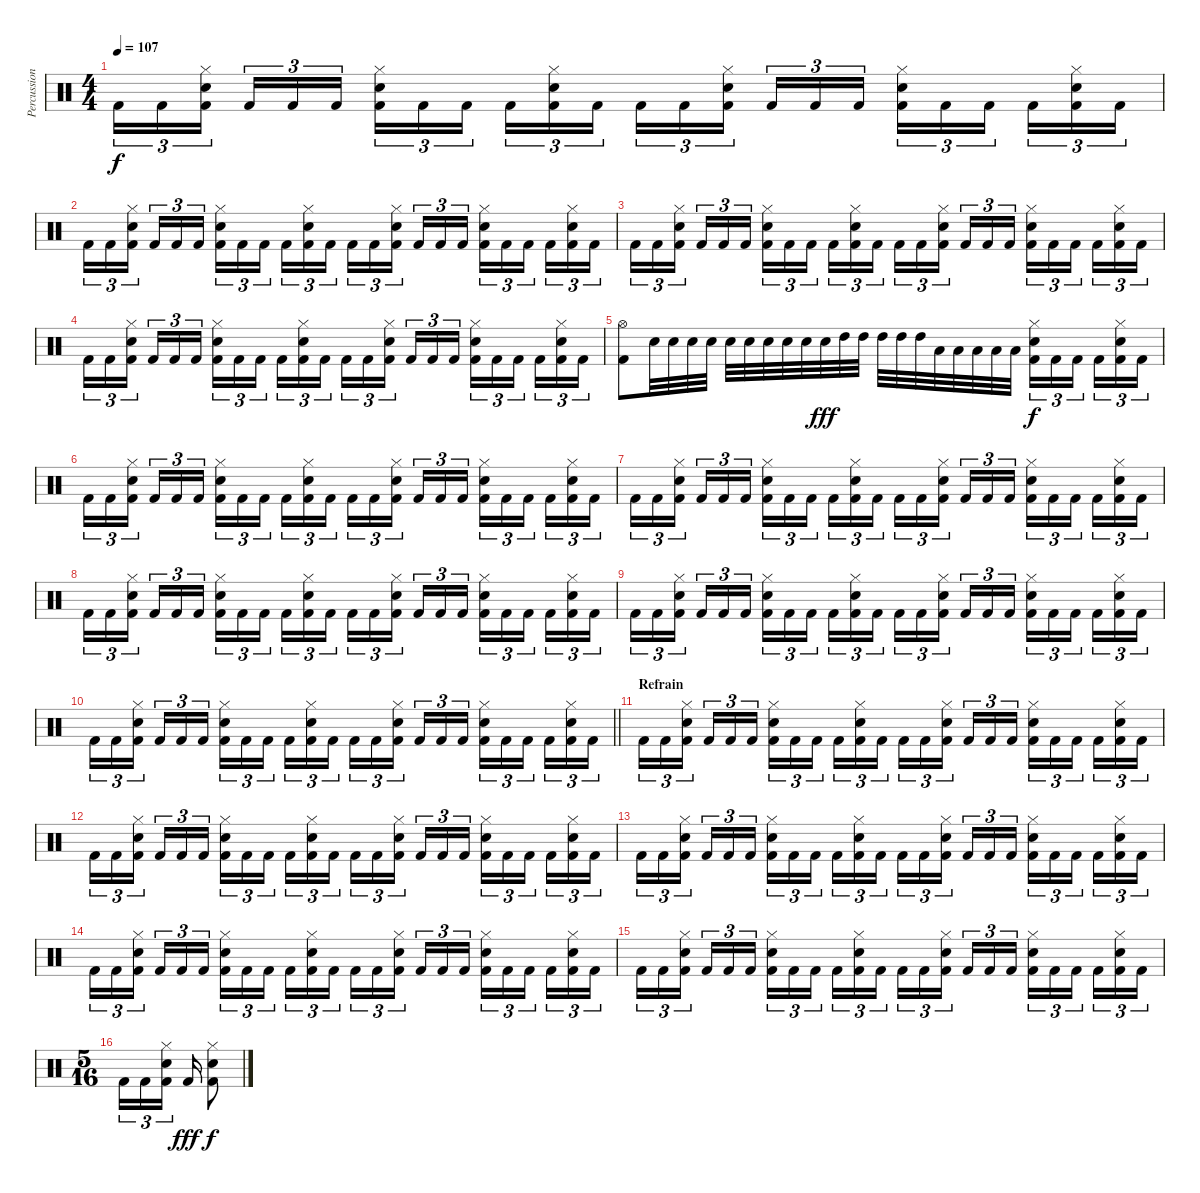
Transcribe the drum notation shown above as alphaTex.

\track ("Percussion" "Percussion") {instrument percussion}
\staff {score}
\articulation defaults
\ts (4 4)
\tempo 107
\clef neutral
\ks c "Kick (hit) 2".16{tu (3 2) dy f} "Kick (hit) 2".16{tu (3 2)}
("Kick (hit) 2" "Electric Snare (hit)" "Hi-Hat (closed)").16{tu (3 2) beam splitsecondary} "Kick (hit) 2".16{tu (3 2)} "Kick (hit) 2".16{tu (3 2)} "Kick (hit) 2".16{tu (3 2)} ("Kick (hit) 2" "Hi-Hat (closed)" "Electric Snare (hit)").16{tu (3 2)} "Kick (hit) 2".16{tu (3 2)} "Kick (hit) 2".16{tu (3 2) beam splitsecondary} "Kick (hit) 2".16{tu (3 2)} ("Kick (hit) 2" "Electric Snare (hit)" "Hi-Hat (closed)").16{tu (3 2)} "Kick (hit) 2".16{tu (3 2)} "Kick (hit) 2".16{tu (3 2)} "Kick (hit) 2".16{tu (3 2)} ("Kick (hit) 2" "Hi-Hat (closed)" "Electric Snare (hit)").16{tu (3 2) beam splitsecondary} "Kick (hit) 2".16{tu (3 2)} "Kick (hit) 2".16{tu (3 2)} "Kick (hit) 2".16{tu (3 2)} ("Kick (hit) 2" "Electric Snare (hit)" "Hi-Hat (closed)").16{tu (3 2)} "Kick (hit) 2".16{tu (3 2)} "Kick (hit) 2".16{tu (3 2) beam splitsecondary} "Kick (hit) 2".16{tu (3 2)} ("Kick (hit) 2" "Hi-Hat (closed)" "Electric Snare (hit)").16{tu (3 2)} "Kick (hit) 2".16{tu (3 2)} |
"Kick (hit) 2".16{tu (3 2)} "Kick (hit) 2".16{tu (3 2)} ("Kick (hit) 2" "Electric Snare (hit)" "Hi-Hat (closed)").16{tu (3 2) beam splitsecondary} "Kick (hit) 2".16{tu (3 2)} "Kick (hit) 2".16{tu (3 2)} "Kick (hit) 2".16{tu (3 2)} ("Kick (hit) 2" "Hi-Hat (closed)" "Electric Snare (hit)").16{tu (3 2)} "Kick (hit) 2".16{tu (3 2)} "Kick (hit) 2".16{tu (3 2) beam splitsecondary} "Kick (hit) 2".16{tu (3 2)} ("Kick (hit) 2" "Electric Snare (hit)" "Hi-Hat (closed)").16{tu (3 2)} "Kick (hit) 2".16{tu (3 2)} "Kick (hit) 2".16{tu (3 2)} "Kick (hit) 2".16{tu (3 2)} ("Kick (hit) 2" "Hi-Hat (closed)" "Electric Snare (hit)").16{tu (3 2) beam splitsecondary} "Kick (hit) 2".16{tu (3 2)} "Kick (hit) 2".16{tu (3 2)} "Kick (hit) 2".16{tu (3 2)} ("Kick (hit) 2" "Electric Snare (hit)" "Hi-Hat (closed)").16{tu (3 2)} "Kick (hit) 2".16{tu (3 2)} "Kick (hit) 2".16{tu (3 2) beam splitsecondary} "Kick (hit) 2".16{tu (3 2)} ("Kick (hit) 2" "Hi-Hat (closed)" "Electric Snare (hit)").16{tu (3 2)} "Kick (hit) 2".16{tu (3 2)} |
"Kick (hit) 2".16{tu (3 2)} "Kick (hit) 2".16{tu (3 2)} ("Kick (hit) 2" "Electric Snare (hit)" "Hi-Hat (closed)").16{tu (3 2) beam splitsecondary} "Kick (hit) 2".16{tu (3 2)} "Kick (hit) 2".16{tu (3 2)} "Kick (hit) 2".16{tu (3 2)} ("Kick (hit) 2" "Hi-Hat (closed)" "Electric Snare (hit)").16{tu (3 2)} "Kick (hit) 2".16{tu (3 2)} "Kick (hit) 2".16{tu (3 2) beam splitsecondary} "Kick (hit) 2".16{tu (3 2)} ("Kick (hit) 2" "Electric Snare (hit)" "Hi-Hat (closed)").16{tu (3 2)} "Kick (hit) 2".16{tu (3 2)} "Kick (hit) 2".16{tu (3 2)} "Kick (hit) 2".16{tu (3 2)} ("Kick (hit) 2" "Hi-Hat (closed)" "Electric Snare (hit)").16{tu (3 2) beam splitsecondary} "Kick (hit) 2".16{tu (3 2)} "Kick (hit) 2".16{tu (3 2)} "Kick (hit) 2".16{tu (3 2)} ("Kick (hit) 2" "Electric Snare (hit)" "Hi-Hat (closed)").16{tu (3 2)} "Kick (hit) 2".16{tu (3 2)} "Kick (hit) 2".16{tu (3 2) beam splitsecondary} "Kick (hit) 2".16{tu (3 2)} ("Kick (hit) 2" "Hi-Hat (closed)" "Electric Snare (hit)").16{tu (3 2)} "Kick (hit) 2".16{tu (3 2)} |
"Kick (hit) 2".16{tu (3 2)} "Kick (hit) 2".16{tu (3 2)} ("Kick (hit) 2" "Electric Snare (hit)" "Hi-Hat (closed)").16{tu (3 2) beam splitsecondary} "Kick (hit) 2".16{tu (3 2)} "Kick (hit) 2".16{tu (3 2)} "Kick (hit) 2".16{tu (3 2)} ("Kick (hit) 2" "Hi-Hat (closed)" "Electric Snare (hit)").16{tu (3 2)} "Kick (hit) 2".16{tu (3 2)} "Kick (hit) 2".16{tu (3 2) beam splitsecondary} "Kick (hit) 2".16{tu (3 2)} ("Kick (hit) 2" "Electric Snare (hit)" "Hi-Hat (closed)").16{tu (3 2)} "Kick (hit) 2".16{tu (3 2)} "Kick (hit) 2".16{tu (3 2)} "Kick (hit) 2".16{tu (3 2)} ("Kick (hit) 2" "Hi-Hat (closed)" "Electric Snare (hit)").16{tu (3 2) beam splitsecondary} "Kick (hit) 2".16{tu (3 2)} "Kick (hit) 2".16{tu (3 2)} "Kick (hit) 2".16{tu (3 2)} ("Kick (hit) 2" "Electric Snare (hit)" "Hi-Hat (closed)").16{tu (3 2)} "Kick (hit) 2".16{tu (3 2)} "Kick (hit) 2".16{tu (3 2) beam splitsecondary} "Kick (hit) 2".16{tu (3 2)} ("Kick (hit) 2" "Hi-Hat (closed)" "Electric Snare (hit)").16{tu (3 2)} "Kick (hit) 2".16{tu (3 2)} |
("Kick (hit) 2" "Hi-Hat (open)").8 "Electric Snare (hit)".32 "Electric Snare (hit)".32 "Electric Snare (hit)".32 "Electric Snare (hit)".32 "Electric Snare (hit)".32 "Electric Snare (hit)".32 "Electric Snare (hit)".32 "Electric Snare (hit)".32 "Electric Snare (hit)".32 "Electric Snare (hit)".32{dy fff} "High Tom (hit)".32 "High Tom (hit)".32 "High Tom (hit)".32 "High Tom (hit)".32 "High Tom (hit)".32 "Low Tom (hit)".32 "Low Tom (hit)".32 "Low Tom (hit)".32 "Low Tom (hit)".32 "Low Tom (hit)".32 ("Kick (hit) 2" "Hi-Hat (closed)" "Electric Snare (hit)").16{tu (3 2) dy f} "Kick (hit) 2".16{tu (3 2)} "Kick (hit) 2".16{tu (3 2) beam splitsecondary} "Kick (hit) 2".16{tu (3 2)} ("Kick (hit) 2" "Electric Snare (hit)" "Hi-Hat (closed)").16{tu (3 2)} "Kick (hit) 2".16{tu (3 2)} |
"Kick (hit) 2".16{tu (3 2)} "Kick (hit) 2".16{tu (3 2)} ("Kick (hit) 2" "Hi-Hat (closed)" "Electric Snare (hit)").16{tu (3 2) beam splitsecondary} "Kick (hit) 2".16{tu (3 2)} "Kick (hit) 2".16{tu (3 2)} "Kick (hit) 2".16{tu (3 2)} ("Kick (hit) 2" "Electric Snare (hit)" "Hi-Hat (closed)").16{tu (3 2)} "Kick (hit) 2".16{tu (3 2)} "Kick (hit) 2".16{tu (3 2) beam splitsecondary} "Kick (hit) 2".16{tu (3 2)} ("Kick (hit) 2" "Hi-Hat (closed)" "Electric Snare (hit)").16{tu (3 2)} "Kick (hit) 2".16{tu (3 2)} "Kick (hit) 2".16{tu (3 2)} "Kick (hit) 2".16{tu (3 2)} ("Kick (hit) 2" "Electric Snare (hit)" "Hi-Hat (closed)").16{tu (3 2) beam splitsecondary} "Kick (hit) 2".16{tu (3 2)} "Kick (hit) 2".16{tu (3 2)} "Kick (hit) 2".16{tu (3 2)} ("Kick (hit) 2" "Hi-Hat (closed)" "Electric Snare (hit)").16{tu (3 2)} "Kick (hit) 2".16{tu (3 2)} "Kick (hit) 2".16{tu (3 2) beam splitsecondary} "Kick (hit) 2".16{tu (3 2)} ("Kick (hit) 2" "Electric Snare (hit)" "Hi-Hat (closed)").16{tu (3 2)} "Kick (hit) 2".16{tu (3 2)} |
"Kick (hit) 2".16{tu (3 2)} "Kick (hit) 2".16{tu (3 2)} ("Kick (hit) 2" "Hi-Hat (closed)" "Electric Snare (hit)").16{tu (3 2) beam splitsecondary} "Kick (hit) 2".16{tu (3 2)} "Kick (hit) 2".16{tu (3 2)} "Kick (hit) 2".16{tu (3 2)} ("Kick (hit) 2" "Electric Snare (hit)" "Hi-Hat (closed)").16{tu (3 2)} "Kick (hit) 2".16{tu (3 2)} "Kick (hit) 2".16{tu (3 2) beam splitsecondary} "Kick (hit) 2".16{tu (3 2)} ("Kick (hit) 2" "Hi-Hat (closed)" "Electric Snare (hit)").16{tu (3 2)} "Kick (hit) 2".16{tu (3 2)} "Kick (hit) 2".16{tu (3 2)} "Kick (hit) 2".16{tu (3 2)} ("Kick (hit) 2" "Electric Snare (hit)" "Hi-Hat (closed)").16{tu (3 2) beam splitsecondary} "Kick (hit) 2".16{tu (3 2)} "Kick (hit) 2".16{tu (3 2)} "Kick (hit) 2".16{tu (3 2)} ("Kick (hit) 2" "Hi-Hat (closed)" "Electric Snare (hit)").16{tu (3 2)} "Kick (hit) 2".16{tu (3 2)} "Kick (hit) 2".16{tu (3 2) beam splitsecondary} "Kick (hit) 2".16{tu (3 2)} ("Kick (hit) 2" "Electric Snare (hit)" "Hi-Hat (closed)").16{tu (3 2)} "Kick (hit) 2".16{tu (3 2)} |
"Kick (hit) 2".16{tu (3 2)} "Kick (hit) 2".16{tu (3 2)} ("Kick (hit) 2" "Hi-Hat (closed)" "Electric Snare (hit)").16{tu (3 2) beam splitsecondary} "Kick (hit) 2".16{tu (3 2)} "Kick (hit) 2".16{tu (3 2)} "Kick (hit) 2".16{tu (3 2)} ("Kick (hit) 2" "Electric Snare (hit)" "Hi-Hat (closed)").16{tu (3 2)} "Kick (hit) 2".16{tu (3 2)} "Kick (hit) 2".16{tu (3 2) beam splitsecondary} "Kick (hit) 2".16{tu (3 2)} ("Kick (hit) 2" "Hi-Hat (closed)" "Electric Snare (hit)").16{tu (3 2)} "Kick (hit) 2".16{tu (3 2)} "Kick (hit) 2".16{tu (3 2)} "Kick (hit) 2".16{tu (3 2)} ("Kick (hit) 2" "Electric Snare (hit)" "Hi-Hat (closed)").16{tu (3 2) beam splitsecondary} "Kick (hit) 2".16{tu (3 2)} "Kick (hit) 2".16{tu (3 2)} "Kick (hit) 2".16{tu (3 2)} ("Kick (hit) 2" "Hi-Hat (closed)" "Electric Snare (hit)").16{tu (3 2)} "Kick (hit) 2".16{tu (3 2)} "Kick (hit) 2".16{tu (3 2) beam splitsecondary} "Kick (hit) 2".16{tu (3 2)} ("Kick (hit) 2" "Electric Snare (hit)" "Hi-Hat (closed)").16{tu (3 2)} "Kick (hit) 2".16{tu (3 2)} |
"Kick (hit) 2".16{tu (3 2)} "Kick (hit) 2".16{tu (3 2)} ("Kick (hit) 2" "Hi-Hat (closed)" "Electric Snare (hit)").16{tu (3 2) beam splitsecondary} "Kick (hit) 2".16{tu (3 2)} "Kick (hit) 2".16{tu (3 2)} "Kick (hit) 2".16{tu (3 2)} ("Kick (hit) 2" "Electric Snare (hit)" "Hi-Hat (closed)").16{tu (3 2)} "Kick (hit) 2".16{tu (3 2)} "Kick (hit) 2".16{tu (3 2) beam splitsecondary} "Kick (hit) 2".16{tu (3 2)} ("Kick (hit) 2" "Hi-Hat (closed)" "Electric Snare (hit)").16{tu (3 2)} "Kick (hit) 2".16{tu (3 2)} "Kick (hit) 2".16{tu (3 2)} "Kick (hit) 2".16{tu (3 2)} ("Kick (hit) 2" "Electric Snare (hit)" "Hi-Hat (closed)").16{tu (3 2) beam splitsecondary} "Kick (hit) 2".16{tu (3 2)} "Kick (hit) 2".16{tu (3 2)} "Kick (hit) 2".16{tu (3 2)} ("Kick (hit) 2" "Hi-Hat (closed)" "Electric Snare (hit)").16{tu (3 2)} "Kick (hit) 2".16{tu (3 2)} "Kick (hit) 2".16{tu (3 2) beam splitsecondary} "Kick (hit) 2".16{tu (3 2)} ("Kick (hit) 2" "Electric Snare (hit)" "Hi-Hat (closed)").16{tu (3 2)} "Kick (hit) 2".16{tu (3 2)} |
\barLineRight lightlight "Kick (hit) 2".16{tu (3 2)} "Kick (hit) 2".16{tu (3 2)}
("Kick (hit) 2" "Hi-Hat (closed)" "Electric Snare (hit)").16{tu (3 2) beam splitsecondary} "Kick (hit) 2".16{tu (3 2)} "Kick (hit) 2".16{tu (3 2)} "Kick (hit) 2".16{tu (3 2)} ("Kick (hit) 2" "Electric Snare (hit)" "Hi-Hat (closed)").16{tu (3 2)} "Kick (hit) 2".16{tu (3 2)} "Kick (hit) 2".16{tu (3 2) beam splitsecondary} "Kick (hit) 2".16{tu (3 2)} ("Kick (hit) 2" "Hi-Hat (closed)" "Electric Snare (hit)").16{tu (3 2)} "Kick (hit) 2".16{tu (3 2)} "Kick (hit) 2".16{tu (3 2)} "Kick (hit) 2".16{tu (3 2)} ("Kick (hit) 2" "Electric Snare (hit)" "Hi-Hat (closed)").16{tu (3 2) beam splitsecondary} "Kick (hit) 2".16{tu (3 2)} "Kick (hit) 2".16{tu (3 2)} "Kick (hit) 2".16{tu (3 2)} ("Kick (hit) 2" "Hi-Hat (closed)" "Electric Snare (hit)").16{tu (3 2)} "Kick (hit) 2".16{tu (3 2)} "Kick (hit) 2".16{tu (3 2) beam splitsecondary} "Kick (hit) 2".16{tu (3 2)} ("Kick (hit) 2" "Electric Snare (hit)" "Hi-Hat (closed)").16{tu (3 2)} "Kick (hit) 2".16{tu (3 2)} |
\section ("" "Refrain")
"Kick (hit) 2".16{tu (3 2)} "Kick (hit) 2".16{tu (3 2)} ("Kick (hit) 2" "Hi-Hat (closed)" "Electric Snare (hit)").16{tu (3 2) beam splitsecondary} "Kick (hit) 2".16{tu (3 2)} "Kick (hit) 2".16{tu (3 2)} "Kick (hit) 2".16{tu (3 2)} ("Kick (hit) 2" "Electric Snare (hit)" "Hi-Hat (closed)").16{tu (3 2)} "Kick (hit) 2".16{tu (3 2)} "Kick (hit) 2".16{tu (3 2) beam splitsecondary} "Kick (hit) 2".16{tu (3 2)} ("Kick (hit) 2" "Hi-Hat (closed)" "Electric Snare (hit)").16{tu (3 2)} "Kick (hit) 2".16{tu (3 2)} "Kick (hit) 2".16{tu (3 2)} "Kick (hit) 2".16{tu (3 2)} ("Kick (hit) 2" "Electric Snare (hit)" "Hi-Hat (closed)").16{tu (3 2) beam splitsecondary} "Kick (hit) 2".16{tu (3 2)} "Kick (hit) 2".16{tu (3 2)} "Kick (hit) 2".16{tu (3 2)} ("Kick (hit) 2" "Hi-Hat (closed)" "Electric Snare (hit)").16{tu (3 2)} "Kick (hit) 2".16{tu (3 2)} "Kick (hit) 2".16{tu (3 2) beam splitsecondary} "Kick (hit) 2".16{tu (3 2)} ("Kick (hit) 2" "Electric Snare (hit)" "Hi-Hat (closed)").16{tu (3 2)} "Kick (hit) 2".16{tu (3 2)} |
"Kick (hit) 2".16{tu (3 2)} "Kick (hit) 2".16{tu (3 2)} ("Kick (hit) 2" "Hi-Hat (closed)" "Electric Snare (hit)").16{tu (3 2) beam splitsecondary} "Kick (hit) 2".16{tu (3 2)} "Kick (hit) 2".16{tu (3 2)} "Kick (hit) 2".16{tu (3 2)} ("Kick (hit) 2" "Electric Snare (hit)" "Hi-Hat (closed)").16{tu (3 2)} "Kick (hit) 2".16{tu (3 2)} "Kick (hit) 2".16{tu (3 2) beam splitsecondary} "Kick (hit) 2".16{tu (3 2)} ("Kick (hit) 2" "Hi-Hat (closed)" "Electric Snare (hit)").16{tu (3 2)} "Kick (hit) 2".16{tu (3 2)} "Kick (hit) 2".16{tu (3 2)} "Kick (hit) 2".16{tu (3 2)} ("Kick (hit) 2" "Electric Snare (hit)" "Hi-Hat (closed)").16{tu (3 2) beam splitsecondary} "Kick (hit) 2".16{tu (3 2)} "Kick (hit) 2".16{tu (3 2)} "Kick (hit) 2".16{tu (3 2)} ("Kick (hit) 2" "Hi-Hat (closed)" "Electric Snare (hit)").16{tu (3 2)} "Kick (hit) 2".16{tu (3 2)} "Kick (hit) 2".16{tu (3 2) beam splitsecondary} "Kick (hit) 2".16{tu (3 2)} ("Kick (hit) 2" "Electric Snare (hit)" "Hi-Hat (closed)").16{tu (3 2)} "Kick (hit) 2".16{tu (3 2)} |
"Kick (hit) 2".16{tu (3 2)} "Kick (hit) 2".16{tu (3 2)} ("Kick (hit) 2" "Hi-Hat (closed)" "Electric Snare (hit)").16{tu (3 2) beam splitsecondary} "Kick (hit) 2".16{tu (3 2)} "Kick (hit) 2".16{tu (3 2)} "Kick (hit) 2".16{tu (3 2)} ("Kick (hit) 2" "Electric Snare (hit)" "Hi-Hat (closed)").16{tu (3 2)} "Kick (hit) 2".16{tu (3 2)} "Kick (hit) 2".16{tu (3 2) beam splitsecondary} "Kick (hit) 2".16{tu (3 2)} ("Kick (hit) 2" "Hi-Hat (closed)" "Electric Snare (hit)").16{tu (3 2)} "Kick (hit) 2".16{tu (3 2)} "Kick (hit) 2".16{tu (3 2)} "Kick (hit) 2".16{tu (3 2)} ("Kick (hit) 2" "Electric Snare (hit)" "Hi-Hat (closed)").16{tu (3 2) beam splitsecondary} "Kick (hit) 2".16{tu (3 2)} "Kick (hit) 2".16{tu (3 2)} "Kick (hit) 2".16{tu (3 2)} ("Kick (hit) 2" "Hi-Hat (closed)" "Electric Snare (hit)").16{tu (3 2)} "Kick (hit) 2".16{tu (3 2)} "Kick (hit) 2".16{tu (3 2) beam splitsecondary} "Kick (hit) 2".16{tu (3 2)} ("Kick (hit) 2" "Electric Snare (hit)" "Hi-Hat (closed)").16{tu (3 2)} "Kick (hit) 2".16{tu (3 2)} |
"Kick (hit) 2".16{tu (3 2)} "Kick (hit) 2".16{tu (3 2)} ("Kick (hit) 2" "Hi-Hat (closed)" "Electric Snare (hit)").16{tu (3 2) beam splitsecondary} "Kick (hit) 2".16{tu (3 2)} "Kick (hit) 2".16{tu (3 2)} "Kick (hit) 2".16{tu (3 2)} ("Kick (hit) 2" "Electric Snare (hit)" "Hi-Hat (closed)").16{tu (3 2)} "Kick (hit) 2".16{tu (3 2)} "Kick (hit) 2".16{tu (3 2) beam splitsecondary} "Kick (hit) 2".16{tu (3 2)} ("Kick (hit) 2" "Hi-Hat (closed)" "Electric Snare (hit)").16{tu (3 2)} "Kick (hit) 2".16{tu (3 2)} "Kick (hit) 2".16{tu (3 2)} "Kick (hit) 2".16{tu (3 2)} ("Kick (hit) 2" "Electric Snare (hit)" "Hi-Hat (closed)").16{tu (3 2) beam splitsecondary} "Kick (hit) 2".16{tu (3 2)} "Kick (hit) 2".16{tu (3 2)} "Kick (hit) 2".16{tu (3 2)} ("Kick (hit) 2" "Hi-Hat (closed)" "Electric Snare (hit)").16{tu (3 2)} "Kick (hit) 2".16{tu (3 2)} "Kick (hit) 2".16{tu (3 2) beam splitsecondary} "Kick (hit) 2".16{tu (3 2)} ("Kick (hit) 2" "Electric Snare (hit)" "Hi-Hat (closed)").16{tu (3 2)} "Kick (hit) 2".16{tu (3 2)} |
"Kick (hit) 2".16{tu (3 2)} "Kick (hit) 2".16{tu (3 2)} ("Kick (hit) 2" "Hi-Hat (closed)" "Electric Snare (hit)").16{tu (3 2) beam splitsecondary} "Kick (hit) 2".16{tu (3 2)} "Kick (hit) 2".16{tu (3 2)} "Kick (hit) 2".16{tu (3 2)} ("Kick (hit) 2" "Electric Snare (hit)" "Hi-Hat (closed)").16{tu (3 2)} "Kick (hit) 2".16{tu (3 2)} "Kick (hit) 2".16{tu (3 2) beam splitsecondary} "Kick (hit) 2".16{tu (3 2)} ("Kick (hit) 2" "Hi-Hat (closed)" "Electric Snare (hit)").16{tu (3 2)} "Kick (hit) 2".16{tu (3 2)} "Kick (hit) 2".16{tu (3 2)} "Kick (hit) 2".16{tu (3 2)} ("Kick (hit) 2" "Electric Snare (hit)" "Hi-Hat (closed)").16{tu (3 2) beam splitsecondary} "Kick (hit) 2".16{tu (3 2)} "Kick (hit) 2".16{tu (3 2)} "Kick (hit) 2".16{tu (3 2)} ("Kick (hit) 2" "Hi-Hat (closed)" "Electric Snare (hit)").16{tu (3 2)} "Kick (hit) 2".16{tu (3 2)} "Kick (hit) 2".16{tu (3 2) beam splitsecondary} "Kick (hit) 2".16{tu (3 2)} ("Kick (hit) 2" "Electric Snare (hit)" "Hi-Hat (closed)").16{tu (3 2)} "Kick (hit) 2".16{tu (3 2)} |
\ts (5 16)
"Kick (hit) 2".16{tu (3 2)} "Kick (hit) 2".16{tu (3 2)} ("Kick (hit) 2" "Hi-Hat (closed)" "Electric Snare (hit)").16{tu (3 2)} "Kick (hit) 2".16{dy fff} ("Kick (hit) 2" "Electric Snare (hit)" "Hi-Hat (closed)").8{dy f}
